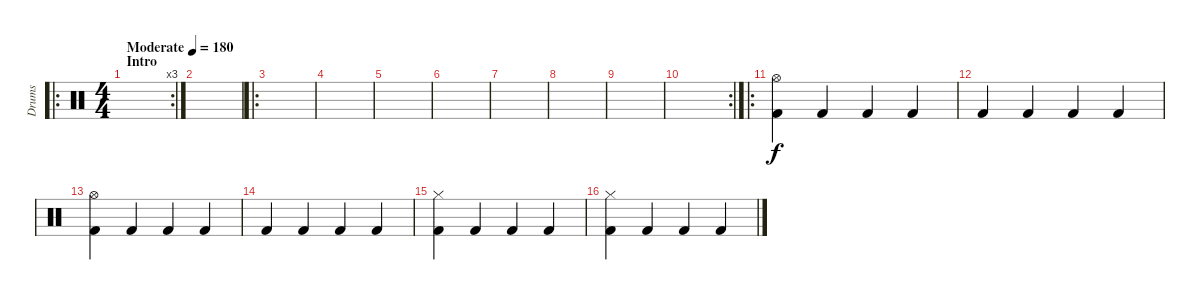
\track ("Drums" "Drums") {instrument percussion}
\staff {score}
\articulation defaults
\ro
\rc 3
\ts (4 4)
\section ("" "Intro")
\tempo (180 "Moderate")
\clef neutral
\ks c
|
|
\ro
|
|
|
|
|
|
|
\rc 2
|
\ro
("Hi-Hat (open)" "Kick (hit) 2").4 "Kick (hit) 2".4 "Kick (hit) 2".4 "Kick (hit) 2".4 |
"Kick (hit) 2".4 "Kick (hit) 2".4 "Kick (hit) 2".4 "Kick (hit) 2".4 |
("Hi-Hat (open)" "Kick (hit) 2").4 "Kick (hit) 2".4 "Kick (hit) 2".4 "Kick (hit) 2".4 |
"Kick (hit) 2".4 "Kick (hit) 2".4 "Kick (hit) 2".4 "Kick (hit) 2".4 |
("Hi-Hat (closed)" "Kick (hit) 2").4 "Kick (hit) 2".4 "Kick (hit) 2".4 "Kick (hit) 2".4 |
("Hi-Hat (closed)" "Kick (hit) 2").4 "Kick (hit) 2".4 "Kick (hit) 2".4 "Kick (hit) 2".4
